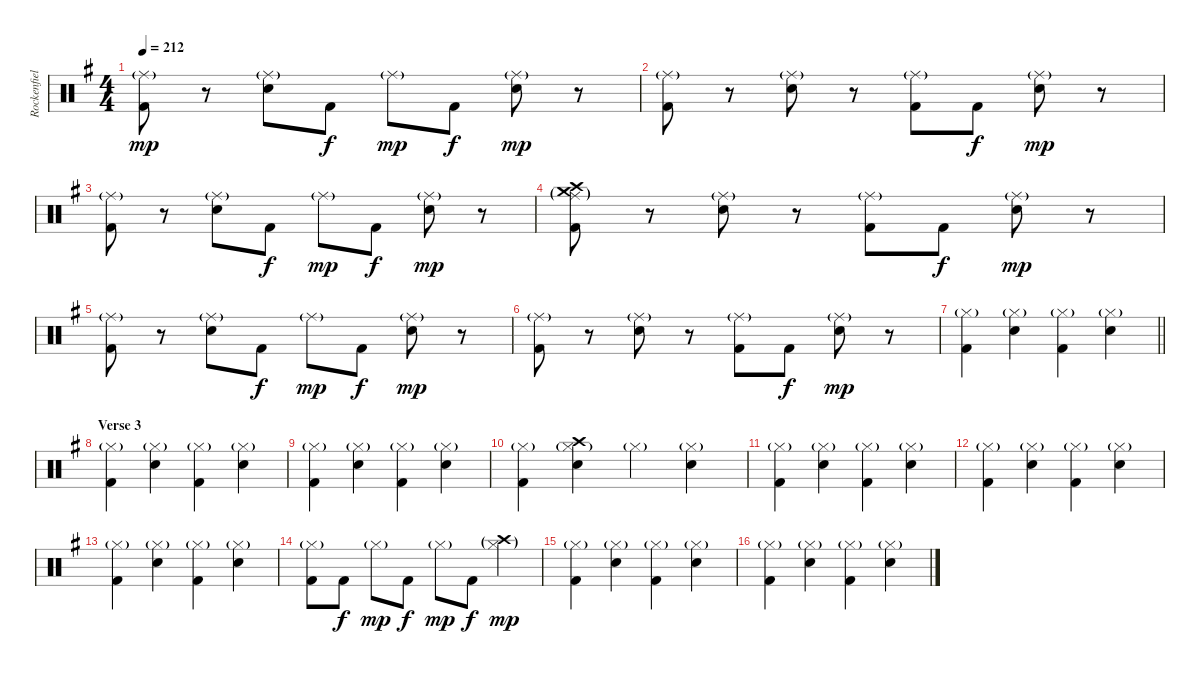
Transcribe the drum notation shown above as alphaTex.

\track ("Rockenfield" "Rockenfiel") {instrument percussion}
\staff {score}
\articulation defaults
\ts (4 4)
\tempo 212
\clef neutral
\ks g
("Ride (middle)"{g} "Kick (hit) 2").8{dy mp} r.8 ("Ride (middle)"{g} "Electric Snare (hit)").8 "Kick (hit) 2".8{dy f} "Ride (middle)"{g}.8{dy mp} "Kick (hit) 2".8{dy f} ("Ride (middle)"{g} "Electric Snare (hit)").8{dy mp} r.8 |
("Ride (middle)"{g} "Kick (hit) 2").8 r.8 ("Ride (middle)"{g} "Electric Snare (hit)").8 r.8 ("Ride (middle)"{g} "Kick (hit) 2").8 "Kick (hit) 2".8{dy f} ("Ride (middle)"{g} "Electric Snare (hit)").8{dy mp} r.8 |
("Ride (middle)"{g} "Kick (hit) 2").8 r.8 ("Ride (middle)"{g} "Electric Snare (hit)").8 "Kick (hit) 2".8{dy f} "Ride (middle)"{g}.8{dy mp} "Kick (hit) 2".8{dy f} ("Ride (middle)"{g} "Electric Snare (hit)").8{dy mp} r.8 |
("Ride (middle)"{g} "Crash medium (hit)"{g} "Crash high (hit)" "Kick (hit) 2").8 r.8 ("Ride (middle)"{g} "Electric Snare (hit)").8 r.8 ("Ride (middle)"{g} "Kick (hit) 2").8 "Kick (hit) 2".8{dy f} ("Ride (middle)"{g} "Electric Snare (hit)").8{dy mp} r.8 |
("Ride (middle)"{g} "Kick (hit) 2").8 r.8 ("Ride (middle)"{g} "Electric Snare (hit)").8 "Kick (hit) 2".8{dy f} "Ride (middle)"{g}.8{dy mp} "Kick (hit) 2".8{dy f} ("Ride (middle)"{g} "Electric Snare (hit)").8{dy mp} r.8 |
("Ride (middle)"{g} "Kick (hit) 2").8 r.8 ("Ride (middle)"{g} "Electric Snare (hit)").8 r.8 ("Ride (middle)"{g} "Kick (hit) 2").8 "Kick (hit) 2".8{dy f} ("Ride (middle)"{g} "Electric Snare (hit)").8{dy mp} r.8 |
\barLineRight lightlight
("Hi-Hat (closed)"{g} "Kick (hit) 2").4 ("Hi-Hat (closed)"{g} "Electric Snare (hit)").4 ("Hi-Hat (closed)"{g} "Kick (hit) 2").4 ("Hi-Hat (closed)"{g} "Electric Snare (hit)").4 |
\section ("" "Verse 3")
("Hi-Hat (closed)"{g} "Kick (hit) 2").4 ("Hi-Hat (closed)"{g} "Electric Snare (hit)").4 ("Hi-Hat (closed)"{g} "Kick (hit) 2").4 ("Hi-Hat (closed)"{g} "Electric Snare (hit)").4 |
("Hi-Hat (closed)"{g} "Kick (hit) 2").4 ("Hi-Hat (closed)"{g} "Electric Snare (hit)").4 ("Hi-Hat (closed)"{g} "Kick (hit) 2").4 ("Hi-Hat (closed)"{g} "Electric Snare (hit)").4 |
("Hi-Hat (closed)"{g} "Kick (hit) 2").4 ("Hi-Hat (closed)"{g} "Crash high (hit)" "Electric Snare (hit)").4 "Hi-Hat (closed)"{g}.4 ("Hi-Hat (closed)"{g} "Electric Snare (hit)").4 |
("Hi-Hat (closed)"{g} "Kick (hit) 2").4 ("Hi-Hat (closed)"{g} "Electric Snare (hit)").4 ("Hi-Hat (closed)"{g} "Kick (hit) 2").4 ("Hi-Hat (closed)"{g} "Electric Snare (hit)").4 |
("Hi-Hat (closed)"{g} "Kick (hit) 2").4 ("Hi-Hat (closed)"{g} "Electric Snare (hit)").4 ("Hi-Hat (closed)"{g} "Kick (hit) 2").4 ("Hi-Hat (closed)"{g} "Electric Snare (hit)").4 |
("Hi-Hat (closed)"{g} "Kick (hit) 2").4 ("Hi-Hat (closed)"{g} "Electric Snare (hit)").4 ("Hi-Hat (closed)"{g} "Kick (hit) 2").4 ("Hi-Hat (closed)"{g} "Electric Snare (hit)").4 |
("Hi-Hat (closed)"{g} "Kick (hit) 2").8 "Kick (hit) 2".8{dy f} "Hi-Hat (closed)"{g}.8{dy mp} "Kick (hit) 2".8{dy f} "Hi-Hat (closed)"{g}.8{dy mp} "Kick (hit) 2".8{dy f} ("Hi-Hat (closed)"{g} "Crash high (hit)"{g}).4{dy mp} |
("Hi-Hat (closed)"{g} "Kick (hit) 2").4 ("Hi-Hat (closed)"{g} "Electric Snare (hit)").4 ("Hi-Hat (closed)"{g} "Kick (hit) 2").4 ("Hi-Hat (closed)"{g} "Electric Snare (hit)").4 |
("Hi-Hat (closed)"{g} "Kick (hit) 2").4 ("Hi-Hat (closed)"{g} "Electric Snare (hit)").4 ("Hi-Hat (closed)"{g} "Kick (hit) 2").4 ("Hi-Hat (closed)"{g} "Electric Snare (hit)").4
